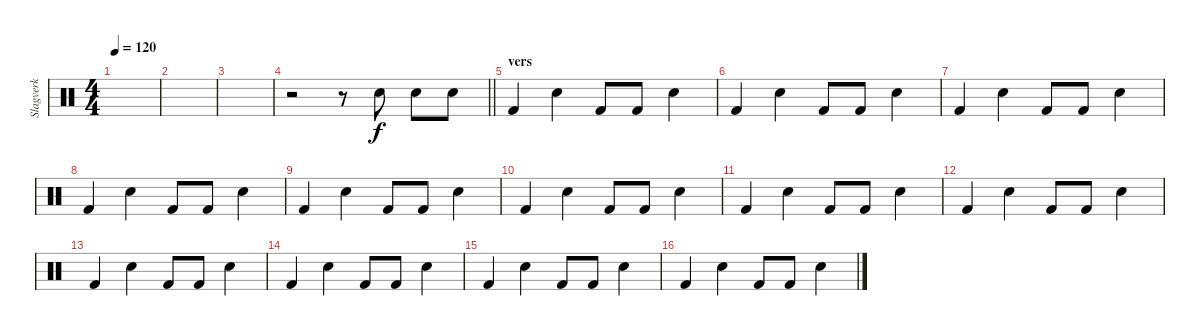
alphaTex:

\track ("Slagverk" "Slagverk") {instrument percussion}
\staff {score}
\articulation defaults
\ts (4 4)
\tempo 120
\clef neutral
\ks c
|
|
|
\barLineRight lightlight
r.2 r.8 "Snare (hit) 2".8 "Snare (hit) 2".8 "Snare (hit) 2".8 |
\section ("" "vers")
"Kick (hit) 2".4 "Snare (hit) 2".4 "Kick (hit) 2".8 "Kick (hit) 2".8 "Snare (hit) 2".4 |
"Kick (hit) 2".4 "Snare (hit) 2".4 "Kick (hit) 2".8 "Kick (hit) 2".8 "Snare (hit) 2".4 |
"Kick (hit) 2".4 "Snare (hit) 2".4 "Kick (hit) 2".8 "Kick (hit) 2".8 "Snare (hit) 2".4 |
"Kick (hit) 2".4 "Snare (hit) 2".4 "Kick (hit) 2".8 "Kick (hit) 2".8 "Snare (hit) 2".4 |
"Kick (hit) 2".4 "Snare (hit) 2".4 "Kick (hit) 2".8 "Kick (hit) 2".8 "Snare (hit) 2".4 |
"Kick (hit) 2".4 "Snare (hit) 2".4 "Kick (hit) 2".8 "Kick (hit) 2".8 "Snare (hit) 2".4 |
"Kick (hit) 2".4 "Snare (hit) 2".4 "Kick (hit) 2".8 "Kick (hit) 2".8 "Snare (hit) 2".4 |
"Kick (hit) 2".4 "Snare (hit) 2".4 "Kick (hit) 2".8 "Kick (hit) 2".8 "Snare (hit) 2".4 |
"Kick (hit) 2".4 "Snare (hit) 2".4 "Kick (hit) 2".8 "Kick (hit) 2".8 "Snare (hit) 2".4 |
"Kick (hit) 2".4 "Snare (hit) 2".4 "Kick (hit) 2".8 "Kick (hit) 2".8 "Snare (hit) 2".4 |
"Kick (hit) 2".4 "Snare (hit) 2".4 "Kick (hit) 2".8 "Kick (hit) 2".8 "Snare (hit) 2".4 |
"Kick (hit) 2".4 "Snare (hit) 2".4 "Kick (hit) 2".8 "Kick (hit) 2".8 "Snare (hit) 2".4
